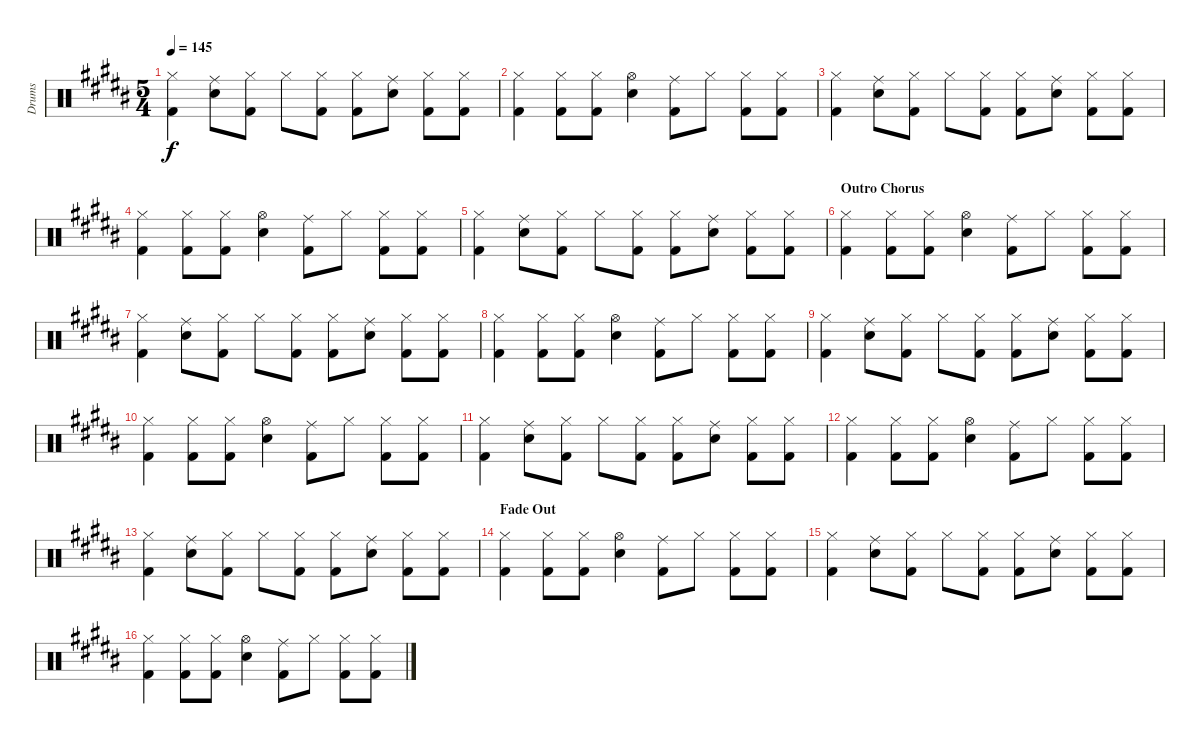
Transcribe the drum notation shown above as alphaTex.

\track ("Drums" "Drums") {instrument percussion}
\staff {score}
\articulation defaults
\ts (5 4)
\tempo 145
\clef neutral
\ks b
("Hi-Hat (closed)" "Kick (hit) 2").4{dy f} ("Ride (middle)" "Electric Snare (hit)").8 ("Hi-Hat (closed)" "Kick (hit) 2").8 "Hi-Hat (closed)".8 ("Hi-Hat (closed)" "Kick (hit) 2").8 ("Hi-Hat (closed)" "Kick (hit) 2").8 ("Ride (middle)" "Electric Snare (hit)").8 ("Hi-Hat (closed)" "Kick (hit) 2").8 ("Hi-Hat (closed)" "Kick (hit) 2").8 |
("Hi-Hat (closed)" "Kick (hit) 2").4 ("Hi-Hat (closed)" "Kick (hit) 2").8 ("Hi-Hat (closed)" "Kick (hit) 2").8 ("Hi-Hat (open)" "Electric Snare (hit)").4 ("Ride (middle)" "Kick (hit) 2").8 "Hi-Hat (closed)".8 ("Hi-Hat (closed)" "Kick (hit) 2").8 ("Hi-Hat (closed)" "Kick (hit) 2").8 |
("Hi-Hat (closed)" "Kick (hit) 2").4 ("Ride (middle)" "Electric Snare (hit)").8 ("Hi-Hat (closed)" "Kick (hit) 2").8 "Hi-Hat (closed)".8 ("Hi-Hat (closed)" "Kick (hit) 2").8 ("Hi-Hat (closed)" "Kick (hit) 2").8 ("Ride (middle)" "Electric Snare (hit)").8 ("Hi-Hat (closed)" "Kick (hit) 2").8 ("Hi-Hat (closed)" "Kick (hit) 2").8 |
("Hi-Hat (closed)" "Kick (hit) 2").4 ("Hi-Hat (closed)" "Kick (hit) 2").8 ("Hi-Hat (closed)" "Kick (hit) 2").8 ("Hi-Hat (open)" "Electric Snare (hit)").4 ("Ride (middle)" "Kick (hit) 2").8 "Hi-Hat (closed)".8 ("Hi-Hat (closed)" "Kick (hit) 2").8 ("Hi-Hat (closed)" "Kick (hit) 2").8 |
("Hi-Hat (closed)" "Kick (hit) 2").4 ("Ride (middle)" "Electric Snare (hit)").8 ("Hi-Hat (closed)" "Kick (hit) 2").8 "Hi-Hat (closed)".8 ("Hi-Hat (closed)" "Kick (hit) 2").8 ("Hi-Hat (closed)" "Kick (hit) 2").8 ("Ride (middle)" "Electric Snare (hit)").8 ("Hi-Hat (closed)" "Kick (hit) 2").8 ("Hi-Hat (closed)" "Kick (hit) 2").8 |
\section ("" "Outro Chorus")
("Hi-Hat (closed)" "Kick (hit) 2").4 ("Hi-Hat (closed)" "Kick (hit) 2").8 ("Hi-Hat (closed)" "Kick (hit) 2").8 ("Hi-Hat (open)" "Electric Snare (hit)").4 ("Ride (middle)" "Kick (hit) 2").8 "Hi-Hat (closed)".8 ("Hi-Hat (closed)" "Kick (hit) 2").8 ("Hi-Hat (closed)" "Kick (hit) 2").8 |
("Hi-Hat (closed)" "Kick (hit) 2").4 ("Ride (middle)" "Electric Snare (hit)").8 ("Hi-Hat (closed)" "Kick (hit) 2").8 "Hi-Hat (closed)".8 ("Hi-Hat (closed)" "Kick (hit) 2").8 ("Hi-Hat (closed)" "Kick (hit) 2").8 ("Ride (middle)" "Electric Snare (hit)").8 ("Hi-Hat (closed)" "Kick (hit) 2").8 ("Hi-Hat (closed)" "Kick (hit) 2").8 |
("Hi-Hat (closed)" "Kick (hit) 2").4 ("Hi-Hat (closed)" "Kick (hit) 2").8 ("Hi-Hat (closed)" "Kick (hit) 2").8 ("Hi-Hat (open)" "Electric Snare (hit)").4 ("Ride (middle)" "Kick (hit) 2").8 "Hi-Hat (closed)".8 ("Hi-Hat (closed)" "Kick (hit) 2").8 ("Hi-Hat (closed)" "Kick (hit) 2").8 |
("Hi-Hat (closed)" "Kick (hit) 2").4 ("Ride (middle)" "Electric Snare (hit)").8 ("Hi-Hat (closed)" "Kick (hit) 2").8 "Hi-Hat (closed)".8 ("Hi-Hat (closed)" "Kick (hit) 2").8 ("Hi-Hat (closed)" "Kick (hit) 2").8 ("Ride (middle)" "Electric Snare (hit)").8 ("Hi-Hat (closed)" "Kick (hit) 2").8 ("Hi-Hat (closed)" "Kick (hit) 2").8 |
("Hi-Hat (closed)" "Kick (hit) 2").4 ("Hi-Hat (closed)" "Kick (hit) 2").8 ("Hi-Hat (closed)" "Kick (hit) 2").8 ("Hi-Hat (open)" "Electric Snare (hit)").4 ("Ride (middle)" "Kick (hit) 2").8 "Hi-Hat (closed)".8 ("Hi-Hat (closed)" "Kick (hit) 2").8 ("Hi-Hat (closed)" "Kick (hit) 2").8 |
("Hi-Hat (closed)" "Kick (hit) 2").4 ("Ride (middle)" "Electric Snare (hit)").8 ("Hi-Hat (closed)" "Kick (hit) 2").8 "Hi-Hat (closed)".8 ("Hi-Hat (closed)" "Kick (hit) 2").8 ("Hi-Hat (closed)" "Kick (hit) 2").8 ("Ride (middle)" "Electric Snare (hit)").8 ("Hi-Hat (closed)" "Kick (hit) 2").8 ("Hi-Hat (closed)" "Kick (hit) 2").8 |
("Hi-Hat (closed)" "Kick (hit) 2").4 ("Hi-Hat (closed)" "Kick (hit) 2").8 ("Hi-Hat (closed)" "Kick (hit) 2").8 ("Hi-Hat (open)" "Electric Snare (hit)").4 ("Ride (middle)" "Kick (hit) 2").8 "Hi-Hat (closed)".8 ("Hi-Hat (closed)" "Kick (hit) 2").8 ("Hi-Hat (closed)" "Kick (hit) 2").8 |
("Hi-Hat (closed)" "Kick (hit) 2").4 ("Ride (middle)" "Electric Snare (hit)").8 ("Hi-Hat (closed)" "Kick (hit) 2").8 "Hi-Hat (closed)".8 ("Hi-Hat (closed)" "Kick (hit) 2").8 ("Hi-Hat (closed)" "Kick (hit) 2").8 ("Ride (middle)" "Electric Snare (hit)").8 ("Hi-Hat (closed)" "Kick (hit) 2").8 ("Hi-Hat (closed)" "Kick (hit) 2").8 |
\section ("" "Fade Out")
("Hi-Hat (closed)" "Kick (hit) 2").4 ("Hi-Hat (closed)" "Kick (hit) 2").8 ("Hi-Hat (closed)" "Kick (hit) 2").8 ("Hi-Hat (open)" "Electric Snare (hit)").4 ("Ride (middle)" "Kick (hit) 2").8 "Hi-Hat (closed)".8 ("Hi-Hat (closed)" "Kick (hit) 2").8 ("Hi-Hat (closed)" "Kick (hit) 2").8 |
("Hi-Hat (closed)" "Kick (hit) 2").4 ("Ride (middle)" "Electric Snare (hit)").8 ("Hi-Hat (closed)" "Kick (hit) 2").8 "Hi-Hat (closed)".8 ("Hi-Hat (closed)" "Kick (hit) 2").8 ("Hi-Hat (closed)" "Kick (hit) 2").8 ("Ride (middle)" "Electric Snare (hit)").8 ("Hi-Hat (closed)" "Kick (hit) 2").8 ("Hi-Hat (closed)" "Kick (hit) 2").8 |
("Hi-Hat (closed)" "Kick (hit) 2").4 ("Hi-Hat (closed)" "Kick (hit) 2").8 ("Hi-Hat (closed)" "Kick (hit) 2").8 ("Hi-Hat (open)" "Electric Snare (hit)").4 ("Ride (middle)" "Kick (hit) 2").8 "Hi-Hat (closed)".8 ("Hi-Hat (closed)" "Kick (hit) 2").8 ("Hi-Hat (closed)" "Kick (hit) 2").8
